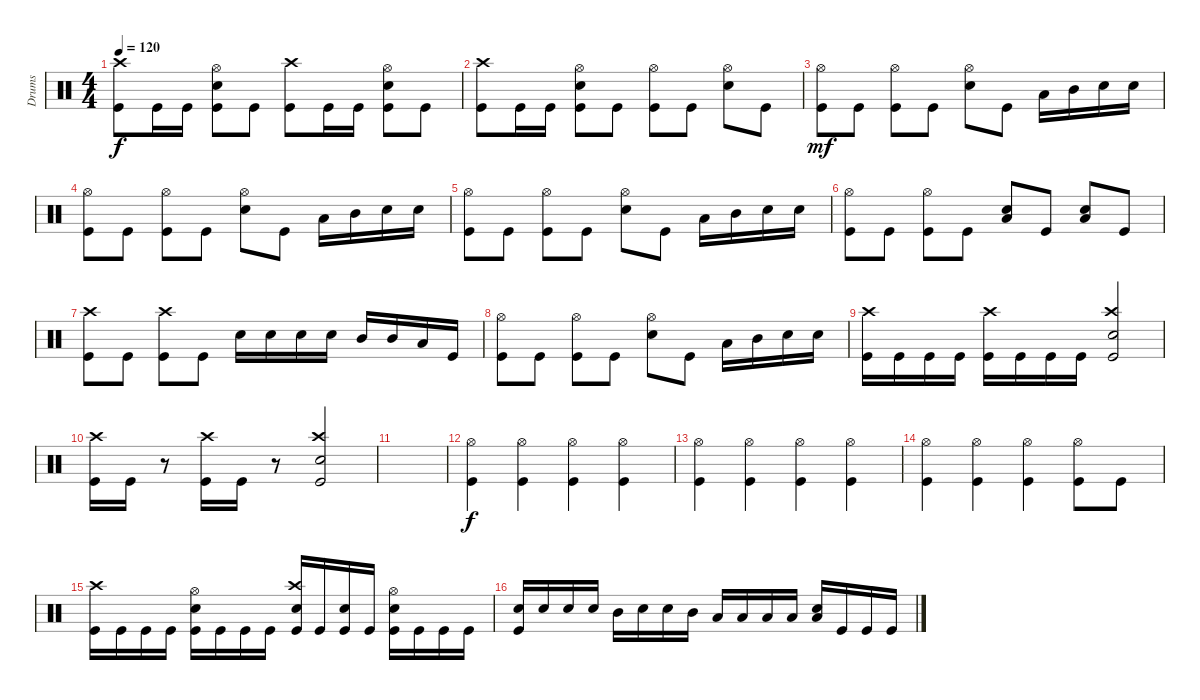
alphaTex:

\track ("Drums" "Drums") {instrument percussion}
\staff {score}
\articulation defaults
\ts (4 4)
\tempo 120
\clef neutral
\ks c
("Kick (hit)" "Crash high (hit)").8{dy f} "Kick (hit)".16 "Kick (hit)".16 ("Kick (hit)" "Snare (hit) 2" "Hi-Hat (open)").8 "Kick (hit)".8 ("Kick (hit)" "Crash high (hit)").8 "Kick (hit)".16 "Kick (hit)".16 ("Kick (hit)" "Snare (hit) 2" "Hi-Hat (open)").8 "Kick (hit)".8 |
("Kick (hit)" "Crash high (hit)").8 "Kick (hit)".16 "Kick (hit)".16 ("Kick (hit)" "Snare (hit) 2" "Hi-Hat (open)").8 "Kick (hit)".8 ("Kick (hit)" "Hi-Hat (open)").8 "Kick (hit)".8 ("Snare (hit) 2" "Hi-Hat (open)").8 "Kick (hit)".8 |
("Kick (hit)" "Hi-Hat (open)").8{dy mf} "Kick (hit)".8 ("Kick (hit)" "Hi-Hat (open)").8 "Kick (hit)".8 ("Hi-Hat (open)" "Snare (hit) 2").8 "Kick (hit)".8 "Low Tom (hit)".16 "Mid Tom (hit)".16 "Snare (hit) 2".16 "Snare (hit) 2".16 |
("Kick (hit)" "Hi-Hat (open)").8 "Kick (hit)".8 ("Kick (hit)" "Hi-Hat (open)").8 "Kick (hit)".8 ("Hi-Hat (open)" "Snare (hit) 2").8 "Kick (hit)".8 "Low Tom (hit)".16 "Mid Tom (hit)".16 "Snare (hit) 2".16 "Snare (hit) 2".16 |
("Kick (hit)" "Hi-Hat (open)").8 "Kick (hit)".8 ("Kick (hit)" "Hi-Hat (open)").8 "Kick (hit)".8 ("Hi-Hat (open)" "Snare (hit) 2").8 "Kick (hit)".8 "Low Tom (hit)".16 "Mid Tom (hit)".16 "Snare (hit) 2".16 "Snare (hit) 2".16 |
("Kick (hit)" "Hi-Hat (open)").8 "Kick (hit)".8 ("Kick (hit)" "Hi-Hat (open)").8 "Kick (hit)".8 ("Low Floor Tom (hit)" "Snare (hit) 2").8 "Kick (hit)".8 ("Low Floor Tom (hit)" "Snare (hit) 2").8 "Kick (hit)".8 |
("Kick (hit)" "Crash high (hit)").8 "Kick (hit)".8 ("Kick (hit)" "Crash high (hit)").8 "Kick (hit)".8 "Snare (hit) 2".16 "Snare (hit) 2".16 "Snare (hit) 2".16 "Snare (hit) 2".16 "Mid Tom (hit)".16 "Mid Tom (hit)".16 "Low Tom (hit)".16 "Kick (hit)".16 |
("Kick (hit)" "Hi-Hat (open)").8 "Kick (hit)".8 ("Kick (hit)" "Hi-Hat (open)").8 "Kick (hit)".8 ("Hi-Hat (open)" "Snare (hit) 2").8 "Kick (hit)".8 "Low Tom (hit)".16 "Mid Tom (hit)".16 "Snare (hit) 2".16 "Snare (hit) 2".16 |
("Kick (hit)" "Crash high (hit)").16 "Kick (hit)".16 "Kick (hit)".16 "Kick (hit)".16 ("Kick (hit)" "Crash high (hit)").16 "Kick (hit)".16 "Kick (hit)".16 "Kick (hit)".16 ("Kick (hit)" "Crash high (hit)" "Snare (hit) 2").2 |
("Kick (hit)" "Crash high (hit)").16 "Kick (hit)".16 r.8 ("Kick (hit)" "Crash high (hit)").16 "Kick (hit)".16 r.8 ("Kick (hit)" "Crash high (hit)" "Snare (hit) 2").2 |
|
("Kick (hit)" "Hi-Hat (open)").4{dy f} ("Kick (hit)" "Hi-Hat (open)").4 ("Kick (hit)" "Hi-Hat (open)").4 ("Kick (hit)" "Hi-Hat (open)").4 |
("Kick (hit)" "Hi-Hat (open)").4 ("Kick (hit)" "Hi-Hat (open)").4 ("Kick (hit)" "Hi-Hat (open)").4 ("Kick (hit)" "Hi-Hat (open)").4 |
("Kick (hit)" "Hi-Hat (open)").4 ("Kick (hit)" "Hi-Hat (open)").4 ("Kick (hit)" "Hi-Hat (open)").4 ("Kick (hit)" "Hi-Hat (open)").8 "Kick (hit)".8 |
("Kick (hit)" "Crash high (hit)").16 "Kick (hit)".16 "Kick (hit)".16 "Kick (hit)".16 ("Kick (hit)" "Hi-Hat (open)" "Snare (hit) 2").16 "Kick (hit)".16 "Kick (hit)".16 "Kick (hit)".16 ("Kick (hit)" "Crash high (hit)" "Snare (hit) 2").16 "Kick (hit)".16 ("Kick (hit)" "Snare (hit) 2").16 "Kick (hit)".16 ("Kick (hit)" "Hi-Hat (open)" "Snare (hit) 2").16 "Kick (hit)".16 "Kick (hit)".16 "Kick (hit)".16 |
("Kick (hit)" "Snare (hit) 2").16 "Snare (hit) 2".16 "Snare (hit) 2".16 "Snare (hit) 2".16 "Mid Tom (hit)".16 "Snare (hit) 2".16 "Snare (hit) 2".16 "Mid Tom (hit)".16 "Low Tom (hit)".16 "Low Tom (hit)".16 "Low Floor Tom (hit)".16 "Low Floor Tom (hit)".16 ("Low Floor Tom (hit)" "Snare (hit) 2").16 "Kick (hit)".16 "Kick (hit)".16 "Kick (hit)".16
